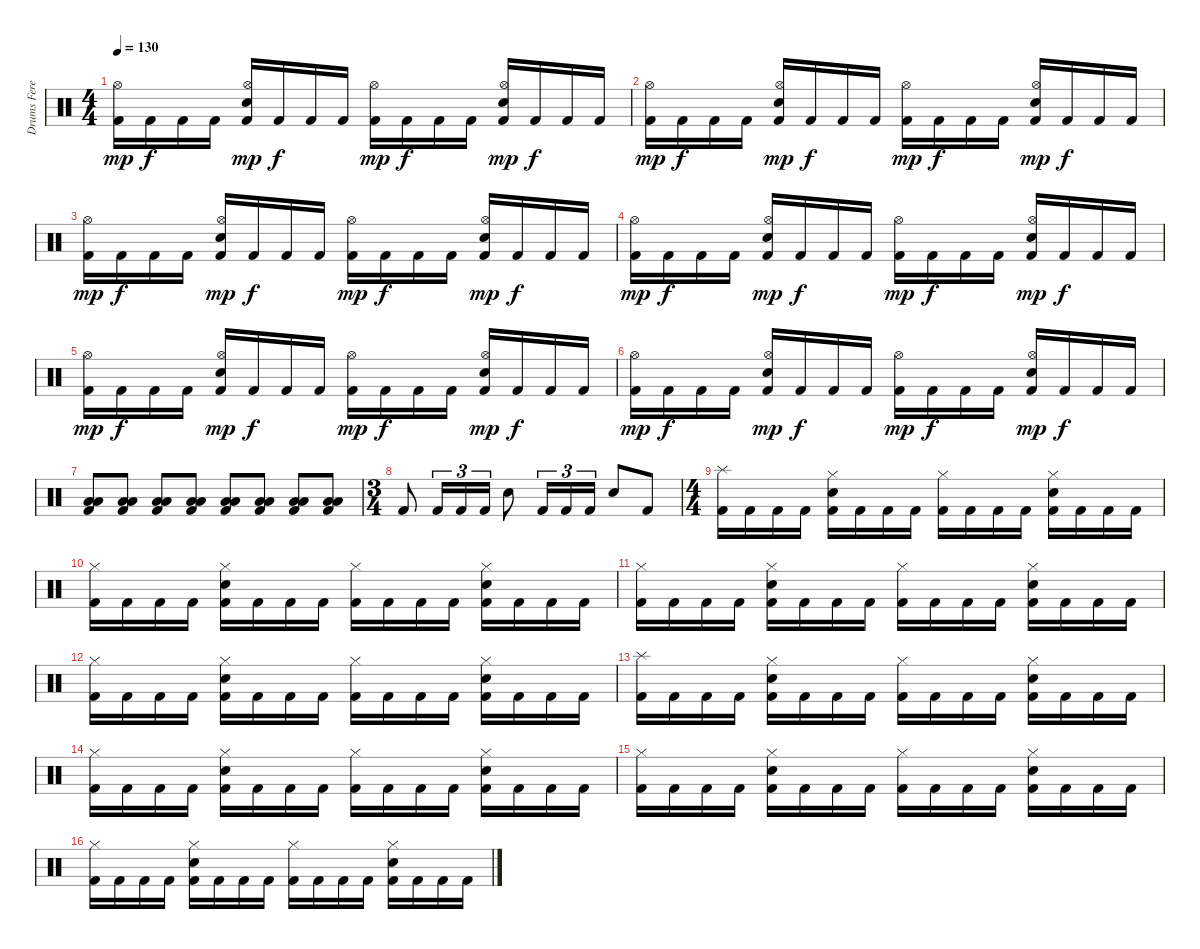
\track ("Drums Feret" "Drums Fere") {instrument percussion}
\staff {score}
\articulation defaults
\ts (4 4)
\tempo 130
\clef neutral
\ks c
("Kick (hit) 2" "Hi-Hat (open)").16{dy mp} "Kick (hit) 2".16{dy f} "Kick (hit) 2".16 "Kick (hit) 2".16 ("Kick (hit) 2" "Electric Snare (hit)" "Hi-Hat (open)").16{dy mp} "Kick (hit) 2".16{dy f} "Kick (hit) 2".16 "Kick (hit) 2".16 ("Kick (hit) 2" "Hi-Hat (open)").16{dy mp} "Kick (hit) 2".16{dy f} "Kick (hit) 2".16 "Kick (hit) 2".16 ("Kick (hit) 2" "Electric Snare (hit)" "Hi-Hat (open)").16{dy mp} "Kick (hit) 2".16{dy f} "Kick (hit) 2".16 "Kick (hit) 2".16 |
("Kick (hit) 2" "Hi-Hat (open)").16{dy mp} "Kick (hit) 2".16{dy f} "Kick (hit) 2".16 "Kick (hit) 2".16 ("Kick (hit) 2" "Electric Snare (hit)" "Hi-Hat (open)").16{dy mp} "Kick (hit) 2".16{dy f} "Kick (hit) 2".16 "Kick (hit) 2".16 ("Kick (hit) 2" "Hi-Hat (open)").16{dy mp} "Kick (hit) 2".16{dy f} "Kick (hit) 2".16 "Kick (hit) 2".16 ("Kick (hit) 2" "Electric Snare (hit)" "Hi-Hat (open)").16{dy mp} "Kick (hit) 2".16{dy f} "Kick (hit) 2".16 "Kick (hit) 2".16 |
("Kick (hit) 2" "Hi-Hat (open)").16{dy mp} "Kick (hit) 2".16{dy f} "Kick (hit) 2".16 "Kick (hit) 2".16 ("Kick (hit) 2" "Electric Snare (hit)" "Hi-Hat (open)").16{dy mp} "Kick (hit) 2".16{dy f} "Kick (hit) 2".16 "Kick (hit) 2".16 ("Kick (hit) 2" "Hi-Hat (open)").16{dy mp} "Kick (hit) 2".16{dy f} "Kick (hit) 2".16 "Kick (hit) 2".16 ("Kick (hit) 2" "Electric Snare (hit)" "Hi-Hat (open)").16{dy mp} "Kick (hit) 2".16{dy f} "Kick (hit) 2".16 "Kick (hit) 2".16 |
("Kick (hit) 2" "Hi-Hat (open)").16{dy mp} "Kick (hit) 2".16{dy f} "Kick (hit) 2".16 "Kick (hit) 2".16 ("Kick (hit) 2" "Electric Snare (hit)" "Hi-Hat (open)").16{dy mp} "Kick (hit) 2".16{dy f} "Kick (hit) 2".16 "Kick (hit) 2".16 ("Kick (hit) 2" "Hi-Hat (open)").16{dy mp} "Kick (hit) 2".16{dy f} "Kick (hit) 2".16 "Kick (hit) 2".16 ("Kick (hit) 2" "Electric Snare (hit)" "Hi-Hat (open)").16{dy mp} "Kick (hit) 2".16{dy f} "Kick (hit) 2".16 "Kick (hit) 2".16 |
("Kick (hit) 2" "Hi-Hat (open)").16{dy mp} "Kick (hit) 2".16{dy f} "Kick (hit) 2".16 "Kick (hit) 2".16 ("Kick (hit) 2" "Electric Snare (hit)" "Hi-Hat (open)").16{dy mp} "Kick (hit) 2".16{dy f} "Kick (hit) 2".16 "Kick (hit) 2".16 ("Kick (hit) 2" "Hi-Hat (open)").16{dy mp} "Kick (hit) 2".16{dy f} "Kick (hit) 2".16 "Kick (hit) 2".16 ("Kick (hit) 2" "Electric Snare (hit)" "Hi-Hat (open)").16{dy mp} "Kick (hit) 2".16{dy f} "Kick (hit) 2".16 "Kick (hit) 2".16 |
("Kick (hit) 2" "Hi-Hat (open)").16{dy mp} "Kick (hit) 2".16{dy f} "Kick (hit) 2".16 "Kick (hit) 2".16 ("Kick (hit) 2" "Electric Snare (hit)" "Hi-Hat (open)").16{dy mp} "Kick (hit) 2".16{dy f} "Kick (hit) 2".16 "Kick (hit) 2".16 ("Kick (hit) 2" "Hi-Hat (open)").16{dy mp} "Kick (hit) 2".16{dy f} "Kick (hit) 2".16 "Kick (hit) 2".16 ("Kick (hit) 2" "Electric Snare (hit)" "Hi-Hat (open)").16{dy mp} "Kick (hit) 2".16{dy f} "Kick (hit) 2".16 "Kick (hit) 2".16 |
("Kick (hit) 2" "Low Floor Tom (hit)" "Low Tom (hit)").8 ("Kick (hit) 2" "Low Floor Tom (hit)" "Low Tom (hit)").8 ("Kick (hit) 2" "Low Floor Tom (hit)" "Low Tom (hit)").8 ("Kick (hit) 2" "Low Floor Tom (hit)" "Low Tom (hit)").8 ("Kick (hit) 2" "Low Floor Tom (hit)" "Low Tom (hit)").8 ("Kick (hit) 2" "Low Floor Tom (hit)" "Low Tom (hit)").8 ("Kick (hit) 2" "Low Floor Tom (hit)" "Low Tom (hit)").8 ("Kick (hit) 2" "Low Floor Tom (hit)" "Low Tom (hit)").8 |
\ts (3 4)
"Kick (hit) 2".8 "Kick (hit) 2".16{tu (3 2)} "Kick (hit) 2".16{tu (3 2)} "Kick (hit) 2".16{tu (3 2)} "Electric Snare (hit)".8 "Kick (hit) 2".16{tu (3 2)} "Kick (hit) 2".16{tu (3 2)} "Kick (hit) 2".16{tu (3 2)} "Electric Snare (hit)".8 "Kick (hit) 2".8 |
\ts (4 4)
("Kick (hit) 2" "Splash (hit)").16 "Kick (hit) 2".16 "Kick (hit) 2".16 "Kick (hit) 2".16 ("Kick (hit) 2" "Electric Snare (hit)" "Hi-Hat (closed)").16 "Kick (hit) 2".16 "Kick (hit) 2".16 "Kick (hit) 2".16 ("Kick (hit) 2" "Hi-Hat (closed)").16 "Kick (hit) 2".16 "Kick (hit) 2".16 "Kick (hit) 2".16 ("Kick (hit) 2" "Electric Snare (hit)" "Hi-Hat (closed)").16 "Kick (hit) 2".16 "Kick (hit) 2".16 "Kick (hit) 2".16 |
("Kick (hit) 2" "Hi-Hat (closed)").16 "Kick (hit) 2".16 "Kick (hit) 2".16 "Kick (hit) 2".16 ("Kick (hit) 2" "Electric Snare (hit)" "Hi-Hat (closed)").16 "Kick (hit) 2".16 "Kick (hit) 2".16 "Kick (hit) 2".16 ("Kick (hit) 2" "Hi-Hat (closed)").16 "Kick (hit) 2".16 "Kick (hit) 2".16 "Kick (hit) 2".16 ("Kick (hit) 2" "Electric Snare (hit)" "Hi-Hat (closed)").16 "Kick (hit) 2".16 "Kick (hit) 2".16 "Kick (hit) 2".16 |
("Kick (hit) 2" "Hi-Hat (closed)").16 "Kick (hit) 2".16 "Kick (hit) 2".16 "Kick (hit) 2".16 ("Kick (hit) 2" "Electric Snare (hit)" "Hi-Hat (closed)").16 "Kick (hit) 2".16 "Kick (hit) 2".16 "Kick (hit) 2".16 ("Kick (hit) 2" "Hi-Hat (closed)").16 "Kick (hit) 2".16 "Kick (hit) 2".16 "Kick (hit) 2".16 ("Kick (hit) 2" "Electric Snare (hit)" "Hi-Hat (closed)").16 "Kick (hit) 2".16 "Kick (hit) 2".16 "Kick (hit) 2".16 |
("Kick (hit) 2" "Hi-Hat (closed)").16 "Kick (hit) 2".16 "Kick (hit) 2".16 "Kick (hit) 2".16 ("Kick (hit) 2" "Electric Snare (hit)" "Hi-Hat (closed)").16 "Kick (hit) 2".16 "Kick (hit) 2".16 "Kick (hit) 2".16 ("Kick (hit) 2" "Hi-Hat (closed)").16 "Kick (hit) 2".16 "Kick (hit) 2".16 "Kick (hit) 2".16 ("Kick (hit) 2" "Electric Snare (hit)" "Hi-Hat (closed)").16 "Kick (hit) 2".16 "Kick (hit) 2".16 "Kick (hit) 2".16 |
("Kick (hit) 2" "Splash (hit)").16 "Kick (hit) 2".16 "Kick (hit) 2".16 "Kick (hit) 2".16 ("Kick (hit) 2" "Electric Snare (hit)" "Hi-Hat (closed)").16 "Kick (hit) 2".16 "Kick (hit) 2".16 "Kick (hit) 2".16 ("Kick (hit) 2" "Hi-Hat (closed)").16 "Kick (hit) 2".16 "Kick (hit) 2".16 "Kick (hit) 2".16 ("Kick (hit) 2" "Electric Snare (hit)" "Hi-Hat (closed)").16 "Kick (hit) 2".16 "Kick (hit) 2".16 "Kick (hit) 2".16 |
("Kick (hit) 2" "Hi-Hat (closed)").16 "Kick (hit) 2".16 "Kick (hit) 2".16 "Kick (hit) 2".16 ("Kick (hit) 2" "Electric Snare (hit)" "Hi-Hat (closed)").16 "Kick (hit) 2".16 "Kick (hit) 2".16 "Kick (hit) 2".16 ("Kick (hit) 2" "Hi-Hat (closed)").16 "Kick (hit) 2".16 "Kick (hit) 2".16 "Kick (hit) 2".16 ("Kick (hit) 2" "Electric Snare (hit)" "Hi-Hat (closed)").16 "Kick (hit) 2".16 "Kick (hit) 2".16 "Kick (hit) 2".16 |
("Kick (hit) 2" "Hi-Hat (closed)").16 "Kick (hit) 2".16 "Kick (hit) 2".16 "Kick (hit) 2".16 ("Kick (hit) 2" "Electric Snare (hit)" "Hi-Hat (closed)").16 "Kick (hit) 2".16 "Kick (hit) 2".16 "Kick (hit) 2".16 ("Kick (hit) 2" "Hi-Hat (closed)").16 "Kick (hit) 2".16 "Kick (hit) 2".16 "Kick (hit) 2".16 ("Kick (hit) 2" "Electric Snare (hit)" "Hi-Hat (closed)").16 "Kick (hit) 2".16 "Kick (hit) 2".16 "Kick (hit) 2".16 |
("Kick (hit) 2" "Hi-Hat (closed)").16 "Kick (hit) 2".16 "Kick (hit) 2".16 "Kick (hit) 2".16 ("Kick (hit) 2" "Electric Snare (hit)" "Hi-Hat (closed)").16 "Kick (hit) 2".16 "Kick (hit) 2".16 "Kick (hit) 2".16 ("Kick (hit) 2" "Hi-Hat (closed)").16 "Kick (hit) 2".16 "Kick (hit) 2".16 "Kick (hit) 2".16 ("Kick (hit) 2" "Electric Snare (hit)" "Hi-Hat (closed)").16 "Kick (hit) 2".16 "Kick (hit) 2".16 "Kick (hit) 2".16
